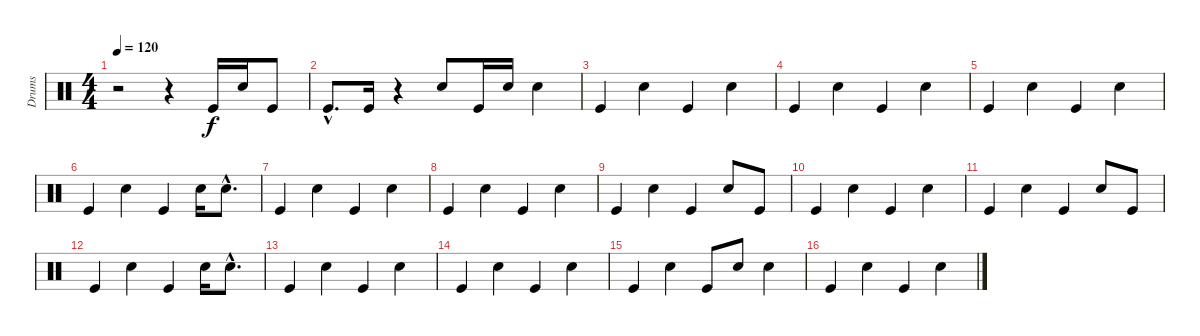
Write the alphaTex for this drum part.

\track ("Drums" "Drums") {instrument percussion}
\staff {score}
\articulation defaults
\ts (4 4)
\tempo 120
\clef neutral
\ks c
r.2{dy f} r.4 "Kick (hit)".16 "Snare (hit) 2".16 "Kick (hit)".8 |
"Kick (hit)"{hac}.8{d} "Kick (hit)".16 r.4 "Snare (hit) 2".8 "Kick (hit)".16 "Snare (hit) 2".16 "Snare (hit) 2".4 |
"Kick (hit)".4 "Snare (hit) 2".4 "Kick (hit)".4 "Snare (hit) 2".4 |
"Kick (hit)".4 "Snare (hit) 2".4 "Kick (hit)".4 "Snare (hit) 2".4 |
"Kick (hit)".4 "Snare (hit) 2".4 "Kick (hit)".4 "Snare (hit) 2".4 |
"Kick (hit)".4 "Snare (hit) 2".4 "Kick (hit)".4 "Snare (hit) 2".16 "Snare (hit) 2"{hac}.8{d} |
"Kick (hit)".4 "Snare (hit) 2".4 "Kick (hit)".4 "Snare (hit) 2".4 |
"Kick (hit)".4 "Snare (hit) 2".4 "Kick (hit)".4 "Snare (hit) 2".4 |
"Kick (hit)".4 "Snare (hit) 2".4 "Kick (hit)".4 "Snare (hit) 2".8 "Kick (hit)".8 |
"Kick (hit)".4 "Snare (hit) 2".4 "Kick (hit)".4 "Snare (hit) 2".4 |
"Kick (hit)".4 "Snare (hit) 2".4 "Kick (hit)".4 "Snare (hit) 2".8 "Kick (hit)".8 |
"Kick (hit)".4 "Snare (hit) 2".4 "Kick (hit)".4 "Snare (hit) 2".16 "Snare (hit) 2"{hac}.8{d} |
"Kick (hit)".4 "Snare (hit) 2".4 "Kick (hit)".4 "Snare (hit) 2".4 |
"Kick (hit)".4 "Snare (hit) 2".4 "Kick (hit)".4 "Snare (hit) 2".4 |
"Kick (hit)".4 "Snare (hit) 2".4 "Kick (hit)".8 "Snare (hit) 2".8 "Snare (hit) 2".4 |
"Kick (hit)".4 "Snare (hit) 2".4 "Kick (hit)".4 "Snare (hit) 2".4
